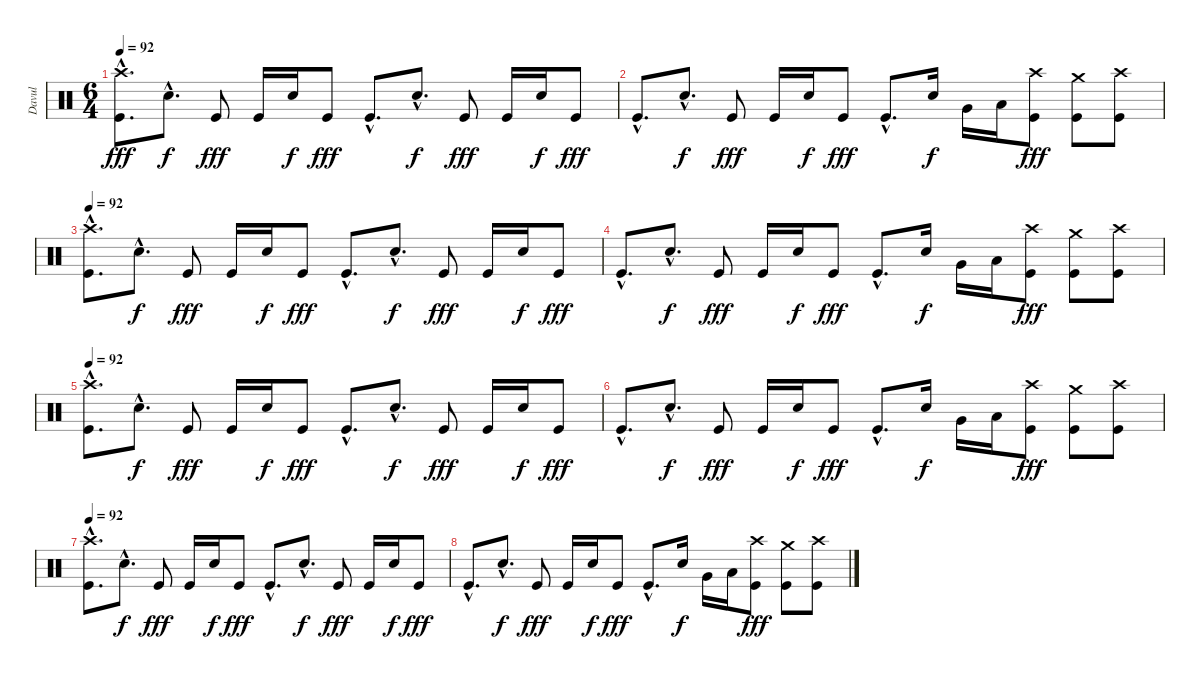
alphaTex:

\track ("Davul" "Davul") {instrument percussion}
\staff {score}
\articulation defaults
\ts (6 4)
\tempo 92
\clef neutral
\ks c
("Crash high (hit)"{hac} "Kick (hit)"{hac}).8{d dy fff} "Snare (hit) 2"{hac}.8{d dy f} "Kick (hit)".8{dy fff} "Kick (hit)".16 "Snare (hit) 2".16{dy f} "Kick (hit)".8{dy fff} "Kick (hit)"{hac}.8{d} "Snare (hit) 2"{hac}.8{d dy f} "Kick (hit)".8{dy fff} "Kick (hit)".16 "Snare (hit) 2".16{dy f} "Kick (hit)".8{dy fff} |
"Kick (hit)"{hac}.8{d} "Snare (hit) 2"{hac}.8{d dy f} "Kick (hit)".8{dy fff} "Kick (hit)".16 "Snare (hit) 2".16{dy f} "Kick (hit)".8{dy fff} "Kick (hit)"{hac}.8{d} "Snare (hit) 2".16{dy f} "Very Low Tom (hit)".16 "Low Floor Tom (hit)".16 ("Crash high (hit)" "Kick (hit)").8{dy fff} ("Crash medium (hit)" "Kick (hit)").8 ("Crash high (hit)" "Kick (hit)").8 |
\tempo 92
("Crash high (hit)"{hac} "Kick (hit)"{hac}).8{d} "Snare (hit) 2"{hac}.8{d dy f} "Kick (hit)".8{dy fff} "Kick (hit)".16 "Snare (hit) 2".16{dy f} "Kick (hit)".8{dy fff} "Kick (hit)"{hac}.8{d} "Snare (hit) 2"{hac}.8{d dy f} "Kick (hit)".8{dy fff} "Kick (hit)".16 "Snare (hit) 2".16{dy f} "Kick (hit)".8{dy fff} |
"Kick (hit)"{hac}.8{d} "Snare (hit) 2"{hac}.8{d dy f} "Kick (hit)".8{dy fff} "Kick (hit)".16 "Snare (hit) 2".16{dy f} "Kick (hit)".8{dy fff} "Kick (hit)"{hac}.8{d} "Snare (hit) 2".16{dy f} "Very Low Tom (hit)".16 "Low Floor Tom (hit)".16 ("Crash high (hit)" "Kick (hit)").8{dy fff} ("Crash medium (hit)" "Kick (hit)").8 ("Crash high (hit)" "Kick (hit)").8 |
\tempo 92
("Crash high (hit)"{hac} "Kick (hit)"{hac}).8{d} "Snare (hit) 2"{hac}.8{d dy f} "Kick (hit)".8{dy fff} "Kick (hit)".16 "Snare (hit) 2".16{dy f} "Kick (hit)".8{dy fff} "Kick (hit)"{hac}.8{d} "Snare (hit) 2"{hac}.8{d dy f} "Kick (hit)".8{dy fff} "Kick (hit)".16 "Snare (hit) 2".16{dy f} "Kick (hit)".8{dy fff} |
"Kick (hit)"{hac}.8{d} "Snare (hit) 2"{hac}.8{d dy f} "Kick (hit)".8{dy fff} "Kick (hit)".16 "Snare (hit) 2".16{dy f} "Kick (hit)".8{dy fff} "Kick (hit)"{hac}.8{d} "Snare (hit) 2".16{dy f} "Very Low Tom (hit)".16 "Low Floor Tom (hit)".16 ("Crash high (hit)" "Kick (hit)").8{dy fff} ("Crash medium (hit)" "Kick (hit)").8 ("Crash high (hit)" "Kick (hit)").8 |
\tempo 92
("Crash high (hit)"{hac} "Kick (hit)"{hac}).8{d} "Snare (hit) 2"{hac}.8{d dy f} "Kick (hit)".8{dy fff} "Kick (hit)".16 "Snare (hit) 2".16{dy f} "Kick (hit)".8{dy fff} "Kick (hit)"{hac}.8{d} "Snare (hit) 2"{hac}.8{d dy f} "Kick (hit)".8{dy fff} "Kick (hit)".16 "Snare (hit) 2".16{dy f} "Kick (hit)".8{dy fff} |
"Kick (hit)"{hac}.8{d} "Snare (hit) 2"{hac}.8{d dy f} "Kick (hit)".8{dy fff} "Kick (hit)".16 "Snare (hit) 2".16{dy f} "Kick (hit)".8{dy fff} "Kick (hit)"{hac}.8{d} "Snare (hit) 2".16{dy f} "Very Low Tom (hit)".16 "Low Floor Tom (hit)".16 ("Crash high (hit)" "Kick (hit)").8{dy fff} ("Crash medium (hit)" "Kick (hit)").8 ("Crash high (hit)" "Kick (hit)").8
